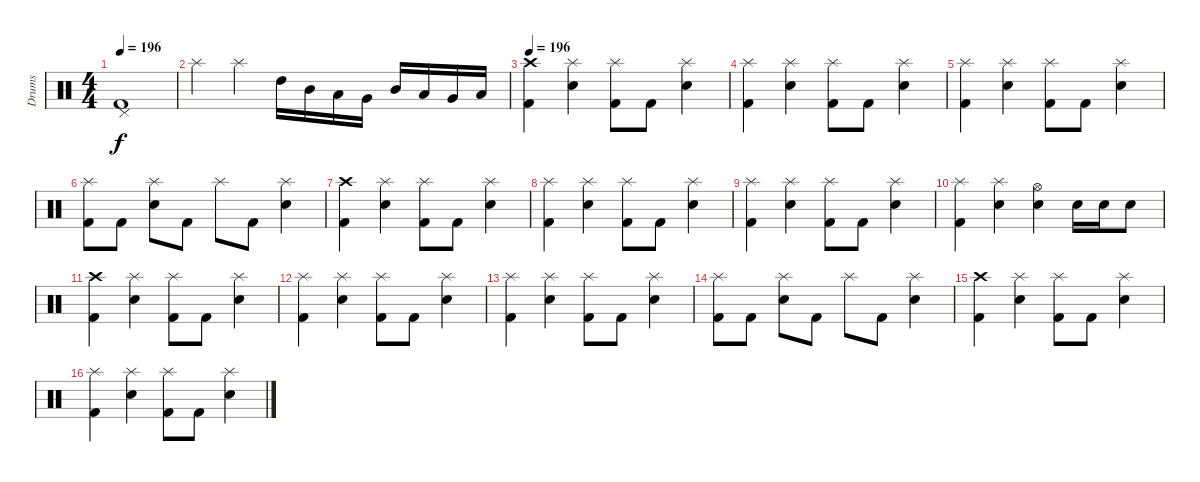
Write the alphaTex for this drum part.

\track ("Drums" "Drums") {instrument percussion}
\staff {score}
\articulation defaults
\ts (4 4)
\tempo 196
\clef neutral
\ks c
("Pedal Hi-Hat (hit)" "Kick (hit) 2").1{dy f} |
"Splash (hit)".4 "Splash (hit)".4 "High Tom (hit)".16 "Mid Tom (hit)".16 "Low Tom (hit)".16 "Very Low Tom (hit)".16 "Mid Tom (hit)".16 "Low Tom (hit)".16 "Very Low Tom (hit)".16 "Low Floor Tom (hit)".16 |
\tempo 196
("Crash high (hit)" "Kick (hit) 2").4 ("Splash (hit)" "Snare (hit) 2").4 ("Splash (hit)" "Kick (hit) 2").8 "Kick (hit) 2".8 ("Splash (hit)" "Snare (hit) 2").4 |
("Splash (hit)" "Kick (hit) 2").4 ("Splash (hit)" "Snare (hit) 2").4 ("Splash (hit)" "Kick (hit) 2").8 "Kick (hit) 2".8 ("Splash (hit)" "Snare (hit) 2").4 |
("Splash (hit)" "Kick (hit) 2").4 ("Splash (hit)" "Snare (hit) 2").4 ("Splash (hit)" "Kick (hit) 2").8 "Kick (hit) 2".8 ("Splash (hit)" "Snare (hit) 2").4 |
("Splash (hit)" "Kick (hit) 2").8 "Kick (hit) 2".8 ("Splash (hit)" "Snare (hit) 2").8 "Kick (hit) 2".8 "Splash (hit)".8 "Kick (hit) 2".8 ("Splash (hit)" "Snare (hit) 2").4 |
("Crash high (hit)" "Kick (hit) 2").4 ("Splash (hit)" "Snare (hit) 2").4 ("Splash (hit)" "Kick (hit) 2").8 "Kick (hit) 2".8 ("Splash (hit)" "Snare (hit) 2").4 |
("Splash (hit)" "Kick (hit) 2").4 ("Splash (hit)" "Snare (hit) 2").4 ("Splash (hit)" "Kick (hit) 2").8 "Kick (hit) 2".8 ("Splash (hit)" "Snare (hit) 2").4 |
("Splash (hit)" "Kick (hit) 2").4 ("Splash (hit)" "Snare (hit) 2").4 ("Splash (hit)" "Kick (hit) 2").8 "Kick (hit) 2".8 ("Splash (hit)" "Snare (hit) 2").4 |
("Splash (hit)" "Kick (hit) 2").4 ("Splash (hit)" "Snare (hit) 2").4 ("Hi-Hat (open)" "Snare (hit) 2").4 "Snare (hit) 2".16 "Snare (hit) 2".16 "Snare (hit) 2".8 |
("Crash high (hit)" "Kick (hit) 2").4 ("Splash (hit)" "Snare (hit) 2").4 ("Splash (hit)" "Kick (hit) 2").8 "Kick (hit) 2".8 ("Splash (hit)" "Snare (hit) 2").4 |
("Splash (hit)" "Kick (hit) 2").4 ("Splash (hit)" "Snare (hit) 2").4 ("Splash (hit)" "Kick (hit) 2").8 "Kick (hit) 2".8 ("Splash (hit)" "Snare (hit) 2").4 |
("Splash (hit)" "Kick (hit) 2").4 ("Splash (hit)" "Snare (hit) 2").4 ("Splash (hit)" "Kick (hit) 2").8 "Kick (hit) 2".8 ("Splash (hit)" "Snare (hit) 2").4 |
("Splash (hit)" "Kick (hit) 2").8 "Kick (hit) 2".8 ("Splash (hit)" "Snare (hit) 2").8 "Kick (hit) 2".8 "Splash (hit)".8 "Kick (hit) 2".8 ("Splash (hit)" "Snare (hit) 2").4 |
("Crash high (hit)" "Kick (hit) 2").4 ("Splash (hit)" "Snare (hit) 2").4 ("Splash (hit)" "Kick (hit) 2").8 "Kick (hit) 2".8 ("Splash (hit)" "Snare (hit) 2").4 |
("Splash (hit)" "Kick (hit) 2").4 ("Splash (hit)" "Snare (hit) 2").4 ("Splash (hit)" "Kick (hit) 2").8 "Kick (hit) 2".8 ("Splash (hit)" "Snare (hit) 2").4
